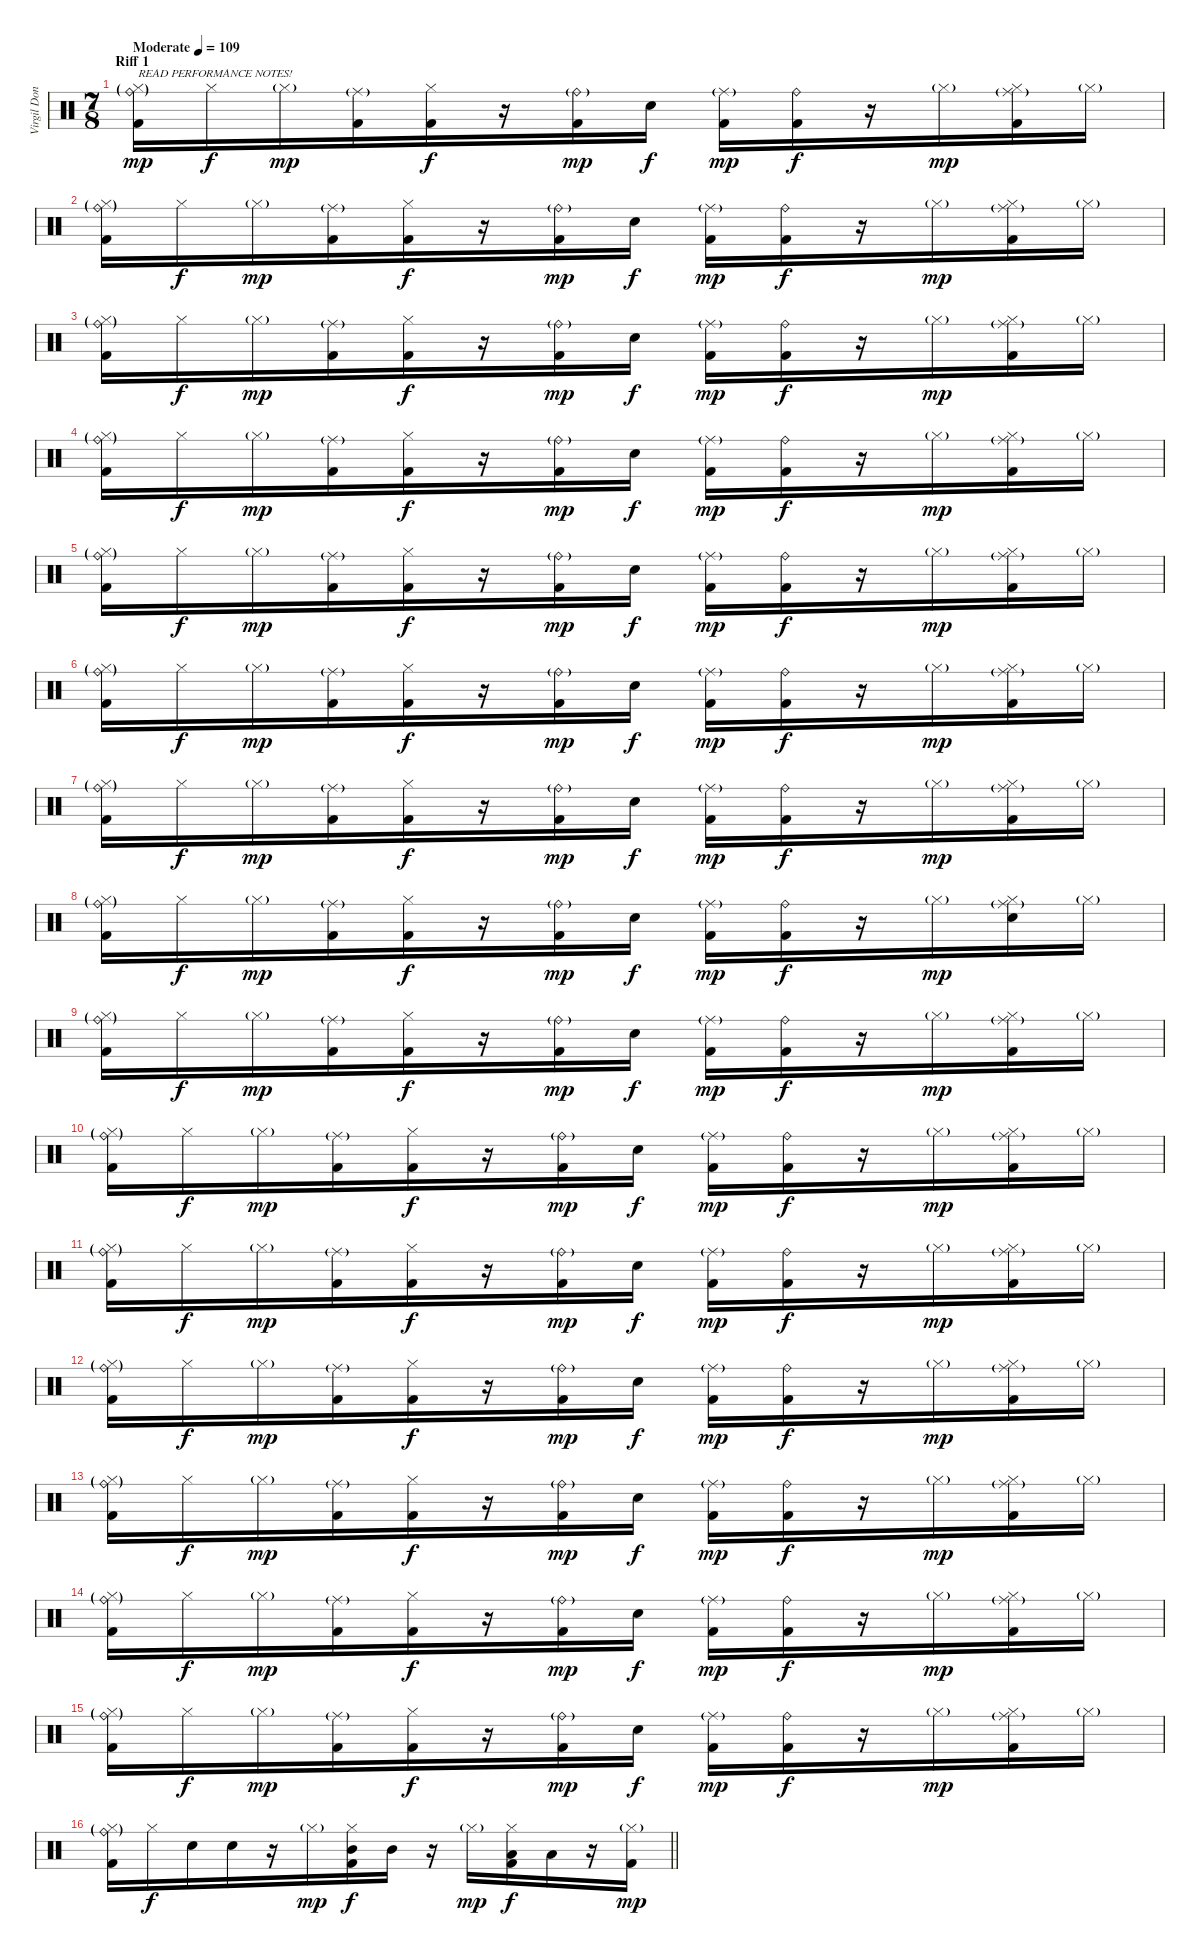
\track ("Virgil Donati" "Virgil Don") {instrument percussion}
\staff {score}
\articulation defaults
\ts (7 8)
\section ("" "Riff 1")
\tempo (109 "Moderate")
\clef neutral
\ks c
("Ride (bell)"{g} "Hi-Hat (closed)"{g} "Kick (hit) 2").16{txt "READ PERFORMANCE NOTES!" dy mp} "Hi-Hat (closed)".16{dy f} "Hi-Hat (closed)"{g}.16{dy mp} ("Ride (middle)"{g} "Kick (hit) 2").16 ("Hi-Hat (closed)" "Kick (hit) 2").16{dy f} r.16 ("Ride (bell)"{g} "Kick (hit) 2").16{dy mp} "Electric Snare (hit)".16{dy f} ("Ride (middle)"{g} "Kick (hit) 2").16{dy mp} ("Ride (bell)" "Kick (hit) 2").16{dy f} r.16 "Hi-Hat (closed)"{g}.16{dy mp} ("Ride (middle)"{g} "Hi-Hat (closed)" "Kick (hit) 2").16 "Hi-Hat (closed)"{g}.16 |
("Ride (bell)"{g} "Hi-Hat (closed)"{g} "Kick (hit) 2").16 "Hi-Hat (closed)".16{dy f} "Hi-Hat (closed)"{g}.16{dy mp} ("Ride (middle)"{g} "Kick (hit) 2").16 ("Hi-Hat (closed)" "Kick (hit) 2").16{dy f} r.16 ("Ride (bell)"{g} "Kick (hit) 2").16{dy mp} "Electric Snare (hit)".16{dy f} ("Ride (middle)"{g} "Kick (hit) 2").16{dy mp} ("Ride (bell)" "Kick (hit) 2").16{dy f} r.16 "Hi-Hat (closed)"{g}.16{dy mp} ("Ride (middle)"{g} "Hi-Hat (closed)" "Kick (hit) 2").16 "Hi-Hat (closed)"{g}.16 |
("Ride (bell)"{g} "Hi-Hat (closed)"{g} "Kick (hit) 2").16 "Hi-Hat (closed)".16{dy f} "Hi-Hat (closed)"{g}.16{dy mp} ("Ride (middle)"{g} "Kick (hit) 2").16 ("Hi-Hat (closed)" "Kick (hit) 2").16{dy f} r.16 ("Ride (bell)"{g} "Kick (hit) 2").16{dy mp} "Electric Snare (hit)".16{dy f} ("Ride (middle)"{g} "Kick (hit) 2").16{dy mp} ("Ride (bell)" "Kick (hit) 2").16{dy f} r.16 "Hi-Hat (closed)"{g}.16{dy mp} ("Ride (middle)"{g} "Hi-Hat (closed)" "Kick (hit) 2").16 "Hi-Hat (closed)"{g}.16 |
("Ride (bell)"{g} "Hi-Hat (closed)"{g} "Kick (hit) 2").16 "Hi-Hat (closed)".16{dy f} "Hi-Hat (closed)"{g}.16{dy mp} ("Ride (middle)"{g} "Kick (hit) 2").16 ("Hi-Hat (closed)" "Kick (hit) 2").16{dy f} r.16 ("Ride (bell)"{g} "Kick (hit) 2").16{dy mp} "Electric Snare (hit)".16{dy f} ("Ride (middle)"{g} "Kick (hit) 2").16{dy mp} ("Ride (bell)" "Kick (hit) 2").16{dy f} r.16 "Hi-Hat (closed)"{g}.16{dy mp} ("Ride (middle)"{g} "Hi-Hat (closed)" "Kick (hit) 2").16 "Hi-Hat (closed)"{g}.16 |
("Ride (bell)"{g} "Hi-Hat (closed)"{g} "Kick (hit) 2").16 "Hi-Hat (closed)".16{dy f} "Hi-Hat (closed)"{g}.16{dy mp} ("Ride (middle)"{g} "Kick (hit) 2").16 ("Hi-Hat (closed)" "Kick (hit) 2").16{dy f} r.16 ("Ride (bell)"{g} "Kick (hit) 2").16{dy mp} "Electric Snare (hit)".16{dy f} ("Ride (middle)"{g} "Kick (hit) 2").16{dy mp} ("Ride (bell)" "Kick (hit) 2").16{dy f} r.16 "Hi-Hat (closed)"{g}.16{dy mp} ("Ride (middle)"{g} "Hi-Hat (closed)" "Kick (hit) 2").16 "Hi-Hat (closed)"{g}.16 |
("Ride (bell)"{g} "Hi-Hat (closed)"{g} "Kick (hit) 2").16 "Hi-Hat (closed)".16{dy f} "Hi-Hat (closed)"{g}.16{dy mp} ("Ride (middle)"{g} "Kick (hit) 2").16 ("Hi-Hat (closed)" "Kick (hit) 2").16{dy f} r.16 ("Ride (bell)"{g} "Kick (hit) 2").16{dy mp} "Electric Snare (hit)".16{dy f} ("Ride (middle)"{g} "Kick (hit) 2").16{dy mp} ("Ride (bell)" "Kick (hit) 2").16{dy f} r.16 "Hi-Hat (closed)"{g}.16{dy mp} ("Ride (middle)"{g} "Hi-Hat (closed)" "Kick (hit) 2").16 "Hi-Hat (closed)"{g}.16 |
("Ride (bell)"{g} "Hi-Hat (closed)"{g} "Kick (hit) 2").16 "Hi-Hat (closed)".16{dy f} "Hi-Hat (closed)"{g}.16{dy mp} ("Ride (middle)"{g} "Kick (hit) 2").16 ("Hi-Hat (closed)" "Kick (hit) 2").16{dy f} r.16 ("Ride (bell)"{g} "Kick (hit) 2").16{dy mp} "Electric Snare (hit)".16{dy f} ("Ride (middle)"{g} "Kick (hit) 2").16{dy mp} ("Ride (bell)" "Kick (hit) 2").16{dy f} r.16 "Hi-Hat (closed)"{g}.16{dy mp} ("Ride (middle)"{g} "Hi-Hat (closed)" "Kick (hit) 2").16 "Hi-Hat (closed)"{g}.16 |
("Ride (bell)"{g} "Hi-Hat (closed)"{g} "Kick (hit) 2").16 "Hi-Hat (closed)".16{dy f} "Hi-Hat (closed)"{g}.16{dy mp} ("Ride (middle)"{g} "Kick (hit) 2").16 ("Hi-Hat (closed)" "Kick (hit) 2").16{dy f} r.16 ("Ride (bell)"{g} "Kick (hit) 2").16{dy mp} "Electric Snare (hit)".16{dy f} ("Ride (middle)"{g} "Kick (hit) 2").16{dy mp} ("Ride (bell)" "Kick (hit) 2").16{dy f} r.16 "Hi-Hat (closed)"{g}.16{dy mp} ("Ride (middle)"{g} "Hi-Hat (closed)" "Electric Snare (hit)").16 "Hi-Hat (closed)"{g}.16 |
("Ride (bell)"{g} "Hi-Hat (closed)"{g} "Kick (hit) 2").16 "Hi-Hat (closed)".16{dy f} "Hi-Hat (closed)"{g}.16{dy mp} ("Ride (middle)"{g} "Kick (hit) 2").16 ("Hi-Hat (closed)" "Kick (hit) 2").16{dy f} r.16 ("Ride (bell)"{g} "Kick (hit) 2").16{dy mp} "Electric Snare (hit)".16{dy f} ("Ride (middle)"{g} "Kick (hit) 2").16{dy mp} ("Ride (bell)" "Kick (hit) 2").16{dy f} r.16 "Hi-Hat (closed)"{g}.16{dy mp} ("Ride (middle)"{g} "Hi-Hat (closed)" "Kick (hit) 2").16 "Hi-Hat (closed)"{g}.16 |
("Ride (bell)"{g} "Hi-Hat (closed)"{g} "Kick (hit) 2").16 "Hi-Hat (closed)".16{dy f} "Hi-Hat (closed)"{g}.16{dy mp} ("Ride (middle)"{g} "Kick (hit) 2").16 ("Hi-Hat (closed)" "Kick (hit) 2").16{dy f} r.16 ("Ride (bell)"{g} "Kick (hit) 2").16{dy mp} "Electric Snare (hit)".16{dy f} ("Ride (middle)"{g} "Kick (hit) 2").16{dy mp} ("Ride (bell)" "Kick (hit) 2").16{dy f} r.16 "Hi-Hat (closed)"{g}.16{dy mp} ("Ride (middle)"{g} "Hi-Hat (closed)" "Kick (hit) 2").16 "Hi-Hat (closed)"{g}.16 |
("Ride (bell)"{g} "Hi-Hat (closed)"{g} "Kick (hit) 2").16 "Hi-Hat (closed)".16{dy f} "Hi-Hat (closed)"{g}.16{dy mp} ("Ride (middle)"{g} "Kick (hit) 2").16 ("Hi-Hat (closed)" "Kick (hit) 2").16{dy f} r.16 ("Ride (bell)"{g} "Kick (hit) 2").16{dy mp} "Electric Snare (hit)".16{dy f} ("Ride (middle)"{g} "Kick (hit) 2").16{dy mp} ("Ride (bell)" "Kick (hit) 2").16{dy f} r.16 "Hi-Hat (closed)"{g}.16{dy mp} ("Ride (middle)"{g} "Hi-Hat (closed)" "Kick (hit) 2").16 "Hi-Hat (closed)"{g}.16 |
("Ride (bell)"{g} "Hi-Hat (closed)"{g} "Kick (hit) 2").16 "Hi-Hat (closed)".16{dy f} "Hi-Hat (closed)"{g}.16{dy mp} ("Ride (middle)"{g} "Kick (hit) 2").16 ("Hi-Hat (closed)" "Kick (hit) 2").16{dy f} r.16 ("Ride (bell)"{g} "Kick (hit) 2").16{dy mp} "Electric Snare (hit)".16{dy f} ("Ride (middle)"{g} "Kick (hit) 2").16{dy mp} ("Ride (bell)" "Kick (hit) 2").16{dy f} r.16 "Hi-Hat (closed)"{g}.16{dy mp} ("Ride (middle)"{g} "Hi-Hat (closed)" "Kick (hit) 2").16 "Hi-Hat (closed)"{g}.16 |
("Ride (bell)"{g} "Hi-Hat (closed)"{g} "Kick (hit) 2").16 "Hi-Hat (closed)".16{dy f} "Hi-Hat (closed)"{g}.16{dy mp} ("Ride (middle)"{g} "Kick (hit) 2").16 ("Hi-Hat (closed)" "Kick (hit) 2").16{dy f} r.16 ("Ride (bell)"{g} "Kick (hit) 2").16{dy mp} "Electric Snare (hit)".16{dy f} ("Ride (middle)"{g} "Kick (hit) 2").16{dy mp} ("Ride (bell)" "Kick (hit) 2").16{dy f} r.16 "Hi-Hat (closed)"{g}.16{dy mp} ("Ride (middle)"{g} "Hi-Hat (closed)" "Kick (hit) 2").16 "Hi-Hat (closed)"{g}.16 |
("Ride (bell)"{g} "Hi-Hat (closed)"{g} "Kick (hit) 2").16 "Hi-Hat (closed)".16{dy f} "Hi-Hat (closed)"{g}.16{dy mp} ("Ride (middle)"{g} "Kick (hit) 2").16 ("Hi-Hat (closed)" "Kick (hit) 2").16{dy f} r.16 ("Ride (bell)"{g} "Kick (hit) 2").16{dy mp} "Electric Snare (hit)".16{dy f} ("Ride (middle)"{g} "Kick (hit) 2").16{dy mp} ("Ride (bell)" "Kick (hit) 2").16{dy f} r.16 "Hi-Hat (closed)"{g}.16{dy mp} ("Ride (middle)"{g} "Hi-Hat (closed)" "Kick (hit) 2").16 "Hi-Hat (closed)"{g}.16 |
("Ride (bell)"{g} "Hi-Hat (closed)"{g} "Kick (hit) 2").16 "Hi-Hat (closed)".16{dy f} "Hi-Hat (closed)"{g}.16{dy mp} ("Ride (middle)"{g} "Kick (hit) 2").16 ("Hi-Hat (closed)" "Kick (hit) 2").16{dy f} r.16 ("Ride (bell)"{g} "Kick (hit) 2").16{dy mp} "Electric Snare (hit)".16{dy f} ("Ride (middle)"{g} "Kick (hit) 2").16{dy mp} ("Ride (bell)" "Kick (hit) 2").16{dy f} r.16 "Hi-Hat (closed)"{g}.16{dy mp} ("Ride (middle)"{g} "Hi-Hat (closed)" "Kick (hit) 2").16 "Hi-Hat (closed)"{g}.16 |
\barLineRight lightlight
("Ride (bell)"{g} "Hi-Hat (closed)"{g} "Kick (hit) 2").16 "Hi-Hat (closed)".16{dy f} "Electric Snare (hit)".16 "Electric Snare (hit)".16 r.16 "Hi-Hat (closed)"{g}.16{dy mp} ("Hi-Hat (closed)" "Mid Tom (hit)" "Kick (hit) 2").16{dy f} "Mid Tom (hit)".16 r.16 "Hi-Hat (closed)"{g}.16{dy mp} ("Hi-Hat (closed)" "Low Tom (hit)" "Kick (hit) 2").16{dy f} "Low Tom (hit)".16 r.16 ("Hi-Hat (closed)"{g} "Kick (hit) 2").16{dy mp}
